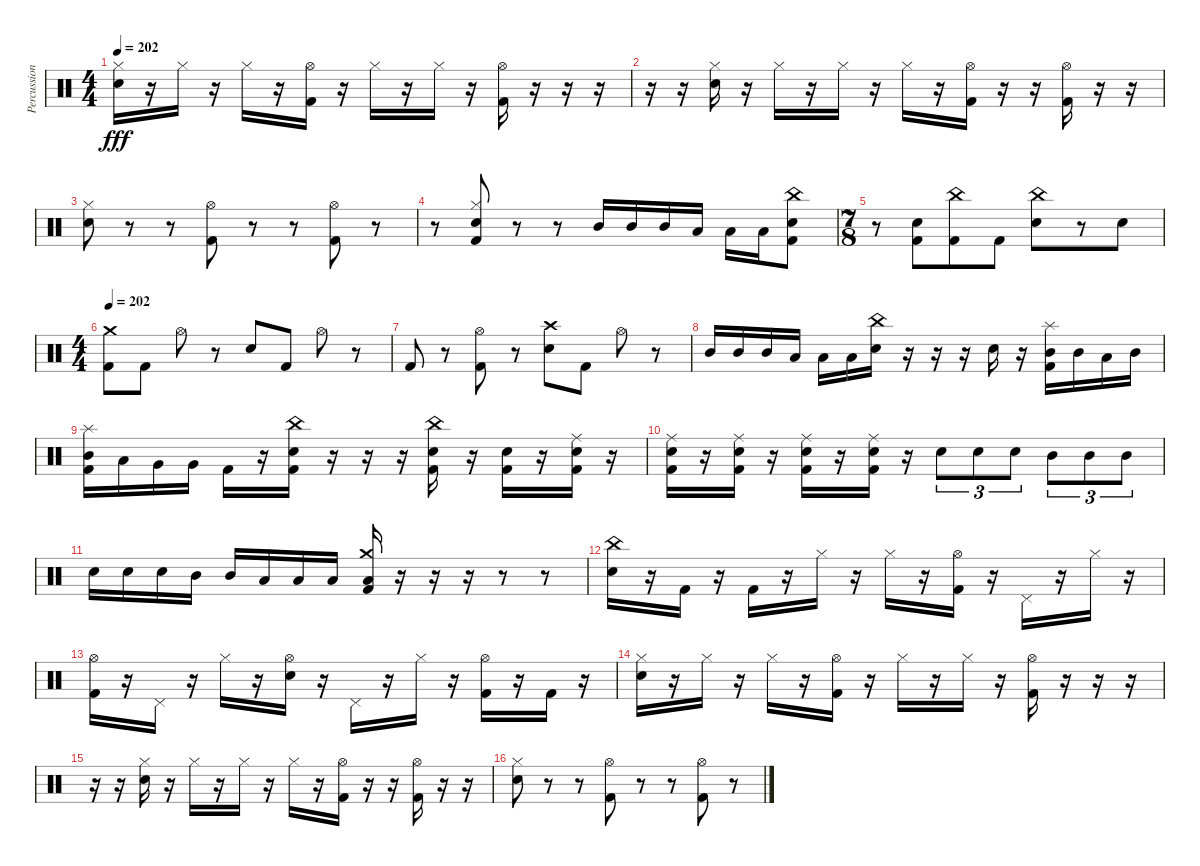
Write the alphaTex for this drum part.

\track ("Percussion" "Percussion") {instrument percussion}
\staff {score}
\articulation defaults
\ts (4 4)
\tempo 202
\clef neutral
\ks c
("Electric Snare (hit)" "Hi-Hat (closed)").16{dy fff} r.16 "Hi-Hat (closed)".16 r.16 "Hi-Hat (closed)".16 r.16 ("Kick (hit) 2" "Hi-Hat (open)").16 r.16 "Hi-Hat (closed)".16 r.16 "Hi-Hat (closed)".16 r.16 ("Kick (hit) 2" "Hi-Hat (open)").16 r.16 r.16 r.16 |
r.16 r.16 ("Electric Snare (hit)" "Hi-Hat (closed)").16 r.16 "Hi-Hat (closed)".16 r.16 "Hi-Hat (closed)".16 r.16 "Hi-Hat (closed)".16 r.16 ("Kick (hit) 2" "Hi-Hat (open)").16 r.16 r.16 ("Kick (hit) 2" "Hi-Hat (open)").16 r.16 r.16 |
("Electric Snare (hit)" "Hi-Hat (closed)").8 r.8 r.8 ("Kick (hit) 2" "Hi-Hat (open)").8 r.8 r.8 ("Kick (hit) 2" "Hi-Hat (open)").8 r.8 |
r.8 ("Kick (hit) 2" "Electric Snare (hit)" "Hi-Hat (closed)").8 r.8 r.8 "Mid Tom (hit)".16 "Mid Tom (hit)".16 "Mid Tom (hit)".16 "Low Tom (hit)".16 "Low Tom (hit)".16 "Low Tom (hit)".16 ("Kick (hit) 2" "Electric Snare (hit)" "China (hit)").8 |
\ts (7 8)
r.8 ("Kick (hit) 2" "Electric Snare (hit)").8 ("Kick (hit) 2" "China (hit)").8 "Kick (hit) 2".8 ("Electric Snare (hit)" "China (hit)").8 r.8 "Electric Snare (hit)".8 |
\ts (4 4)
\tempo 202
("Kick (hit) 2" "Crash medium (hit)").8 "Kick (hit) 2".8 "Hi-Hat (open)".8 r.8 "Electric Snare (hit)".8 "Kick (hit) 2".8 "Hi-Hat (open)".8 r.8 |
"Kick (hit) 2".8 r.8 ("Kick (hit) 2" "Hi-Hat (open)").8 r.8 ("Electric Snare (hit)" "Crash high (hit)").8 "Kick (hit) 2".8 "Hi-Hat (open)".8 r.8 |
"Mid Tom (hit)".16 "Mid Tom (hit)".16 "Mid Tom (hit)".16 "Low Tom (hit)".16 "Low Tom (hit)".16 "Low Tom (hit)".16 ("Electric Snare (hit)" "China (hit)").16 r.16 r.16 r.16 "Electric Snare (hit)".16 r.16 ("Kick (hit) 2" "Mid Tom (hit)" "Splash (hit)").16 "Mid Tom (hit)".16 "Low Tom (hit)".16 "Mid Tom (hit)".16 |
("Kick (hit) 2" "Mid Tom (hit)" "Splash (hit)").16 "Low Tom (hit)".16 "Very Low Tom (hit)".16 "Very Low Tom (hit)".16 "Kick (hit) 2".16 r.16 ("Kick (hit) 2" "Electric Snare (hit)" "China (hit)").16 r.16 r.16 r.16 ("Kick (hit) 2" "Electric Snare (hit)" "China (hit)").16 r.16 ("Kick (hit) 2" "Electric Snare (hit)").16 r.16 ("Kick (hit) 2" "Electric Snare (hit)" "Ride (middle)").16 r.16 |
("Kick (hit) 2" "Electric Snare (hit)" "Ride (middle)").16 r.16 ("Kick (hit) 2" "Electric Snare (hit)" "Ride (middle)").16 r.16 ("Kick (hit) 2" "Electric Snare (hit)" "Ride (middle)").16 r.16 ("Kick (hit) 2" "Electric Snare (hit)" "Ride (middle)").16 r.16 "Electric Snare (hit)".8{tu (3 2)} "Electric Snare (hit)".8{tu (3 2)} "Electric Snare (hit)".8{tu (3 2)} "Mid Tom (hit)".8{tu (3 2)} "Mid Tom (hit)".8{tu (3 2)} "Mid Tom (hit)".8{tu (3 2)} |
"Electric Snare (hit)".16 "Electric Snare (hit)".16 "Electric Snare (hit)".16 "Mid Tom (hit)".16 "Mid Tom (hit)".16 "Low Tom (hit)".16 "Low Tom (hit)".16 "Low Tom (hit)".16 ("Kick (hit) 2" "Low Floor Tom (hit)" "Crash medium (hit)").16 r.16 r.16 r.16 r.8 r.8 |
("Electric Snare (hit)" "China (hit)").16 r.16 "Kick (hit) 2".16 r.16 "Kick (hit) 2".16 r.16 "Hi-Hat (closed)".16 r.16 "Hi-Hat (closed)".16 r.16 ("Kick (hit) 2" "Hi-Hat (open)").16 r.16 "Pedal Hi-Hat (hit)".16 r.16 "Hi-Hat (closed)".16 r.16 |
("Kick (hit) 2" "Hi-Hat (open)").16 r.16 "Pedal Hi-Hat (hit)".16 r.16 "Hi-Hat (closed)".16 r.16 ("Electric Snare (hit)" "Hi-Hat (open)").16 r.16 "Pedal Hi-Hat (hit)".16 r.16 "Hi-Hat (closed)".16 r.16 ("Kick (hit) 2" "Hi-Hat (open)").16 r.16 "Kick (hit) 2".16 r.16 |
("Electric Snare (hit)" "Hi-Hat (closed)").16 r.16 "Hi-Hat (closed)".16 r.16 "Hi-Hat (closed)".16 r.16 ("Kick (hit) 2" "Hi-Hat (open)").16 r.16 "Hi-Hat (closed)".16 r.16 "Hi-Hat (closed)".16 r.16 ("Kick (hit) 2" "Hi-Hat (open)").16 r.16 r.16 r.16 |
r.16 r.16 ("Electric Snare (hit)" "Hi-Hat (closed)").16 r.16 "Hi-Hat (closed)".16 r.16 "Hi-Hat (closed)".16 r.16 "Hi-Hat (closed)".16 r.16 ("Kick (hit) 2" "Hi-Hat (open)").16 r.16 r.16 ("Kick (hit) 2" "Hi-Hat (open)").16 r.16 r.16 |
("Electric Snare (hit)" "Hi-Hat (closed)").8 r.8 r.8 ("Kick (hit) 2" "Hi-Hat (open)").8 r.8 r.8 ("Kick (hit) 2" "Hi-Hat (open)").8 r.8
